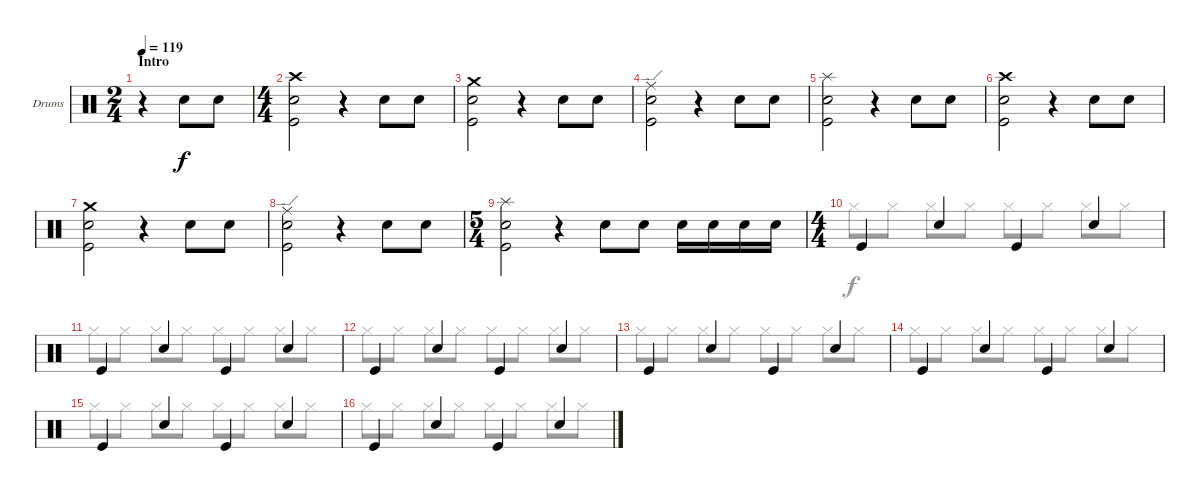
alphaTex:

\defaultSystemsLayout 4
\bracketExtendMode groupsimilarinstruments
\firstSystemTrackNameOrientation horizontal
\otherSystemsTrackNameOrientation horizontal
\track ("Drumkit" "Drums") {instrument percussion}
\staff {score}
\articulation defaults
\voice
\ts (2 4)
\section ("" "Intro")
\tempo 119
\clef neutral
\ks c
r.4{dy f} "Snare (hit) 2".8 "Snare (hit) 2".8 |
\ts (4 4)
("Snare (hit) 2" "Kick (hit)" "Crash high (hit)").2 r.4 "Snare (hit) 2".8 "Snare (hit) 2".8 |
("Snare (hit) 2" "Kick (hit)" "Crash medium (hit)").2 r.4 "Snare (hit) 2".8 "Snare (hit) 2".8 |
("Snare (hit) 2" "Kick (hit)" "Ride (edge)").2 r.4 "Snare (hit) 2".8 "Snare (hit) 2".8 |
("Snare (hit) 2" "Kick (hit)" "Splash (hit)").2 r.4 "Snare (hit) 2".8 "Snare (hit) 2".8 |
("Snare (hit) 2" "Kick (hit)" "Crash high (hit)").2 r.4 "Snare (hit) 2".8 "Snare (hit) 2".8 |
("Snare (hit) 2" "Kick (hit)" "Crash medium (hit)").2 r.4 "Snare (hit) 2".8 "Snare (hit) 2".8 |
("Snare (hit) 2" "Kick (hit)" "Ride (edge)").2 r.4 "Snare (hit) 2".8 "Snare (hit) 2".8 |
\ts (5 4)
("Snare (hit) 2" "Kick (hit)" "Splash (hit)").2 r.4 "Snare (hit) 2".8 "Snare (hit) 2".8 "Snare (hit) 2".16 "Snare (hit) 2".16 "Snare (hit) 2".16 "Snare (hit) 2".16 |
\ts (4 4)
"Kick (hit)".4 "Snare (hit) 2".4 "Kick (hit)".4 "Snare (hit) 2".4 |
"Kick (hit)".4 "Snare (hit) 2".4 "Kick (hit)".4 "Snare (hit) 2".4 |
"Kick (hit)".4 "Snare (hit) 2".4 "Kick (hit)".4 "Snare (hit) 2".4 |
"Kick (hit)".4 "Snare (hit) 2".4 "Kick (hit)".4 "Snare (hit) 2".4 |
"Kick (hit)".4 "Snare (hit) 2".4 "Kick (hit)".4 "Snare (hit) 2".4 |
"Kick (hit)".4 "Snare (hit) 2".4 "Kick (hit)".4 "Snare (hit) 2".4 |
"Kick (hit)".4 "Snare (hit) 2".4 "Kick (hit)".4 "Snare (hit) 2".4
\voice
\clef neutral
\ottava regular
\simile none
\ks c
|
|
|
|
|
|
|
|
|
"Hi-Hat (closed)".8 "Hi-Hat (closed)".8 "Hi-Hat (closed)".8 "Hi-Hat (closed)".8 "Hi-Hat (closed)".8 "Hi-Hat (closed)".8 "Hi-Hat (closed)".8 "Hi-Hat (closed)".8 |
"Hi-Hat (closed)".8 "Hi-Hat (closed)".8 "Hi-Hat (closed)".8 "Hi-Hat (closed)".8 "Hi-Hat (closed)".8 "Hi-Hat (closed)".8 "Hi-Hat (closed)".8 "Hi-Hat (closed)".8 |
"Hi-Hat (closed)".8 "Hi-Hat (closed)".8 "Hi-Hat (closed)".8 "Hi-Hat (closed)".8 "Hi-Hat (closed)".8 "Hi-Hat (closed)".8 "Hi-Hat (closed)".8 "Hi-Hat (closed)".8 |
"Hi-Hat (closed)".8 "Hi-Hat (closed)".8 "Hi-Hat (closed)".8 "Hi-Hat (closed)".8 "Hi-Hat (closed)".8 "Hi-Hat (closed)".8 "Hi-Hat (closed)".8 "Hi-Hat (closed)".8 |
"Hi-Hat (closed)".8 "Hi-Hat (closed)".8 "Hi-Hat (closed)".8 "Hi-Hat (closed)".8 "Hi-Hat (closed)".8 "Hi-Hat (closed)".8 "Hi-Hat (closed)".8 "Hi-Hat (closed)".8 |
"Hi-Hat (closed)".8 "Hi-Hat (closed)".8 "Hi-Hat (closed)".8 "Hi-Hat (closed)".8 "Hi-Hat (closed)".8 "Hi-Hat (closed)".8 "Hi-Hat (closed)".8 "Hi-Hat (closed)".8 |
"Hi-Hat (closed)".8 "Hi-Hat (closed)".8 "Hi-Hat (closed)".8 "Hi-Hat (closed)".8 "Hi-Hat (closed)".8 "Hi-Hat (closed)".8 "Hi-Hat (closed)".8 "Hi-Hat (closed)".8
